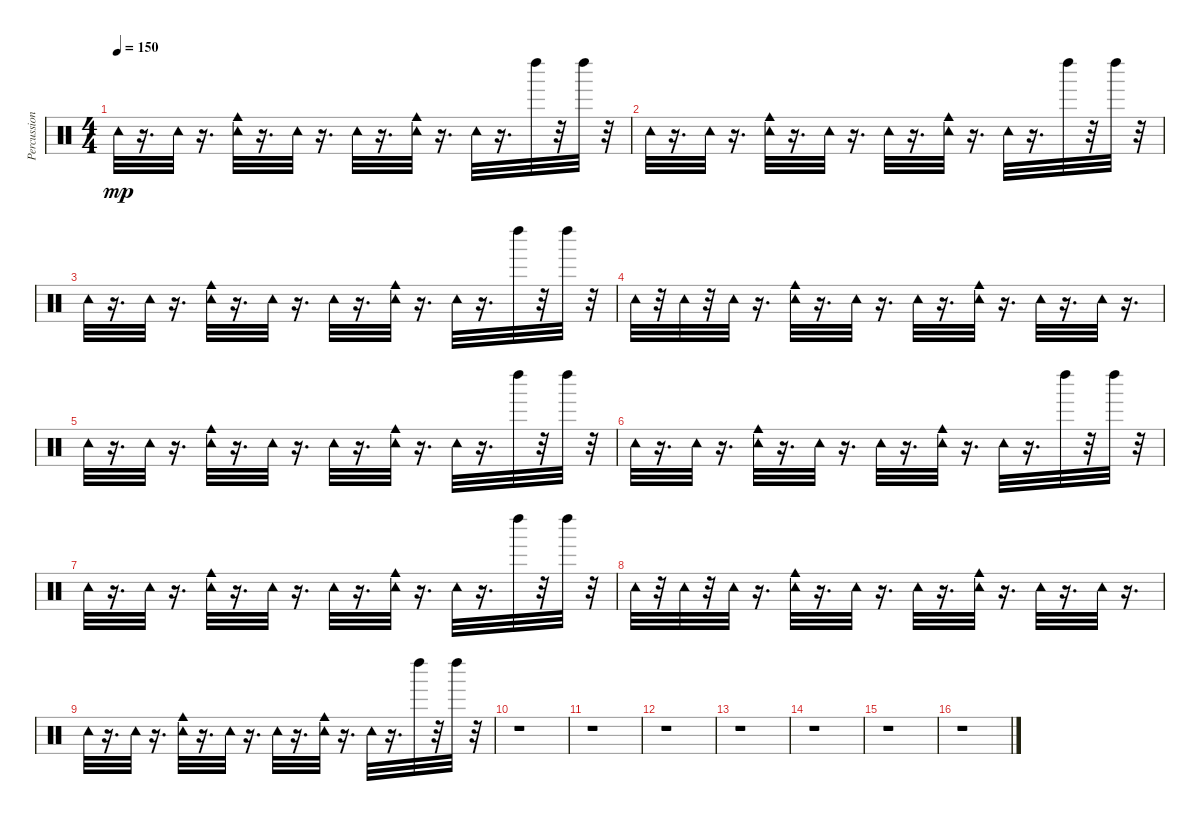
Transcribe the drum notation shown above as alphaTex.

\track ("Percussion" "Percussion") {instrument percussion}
\staff {score}
\articulation defaults
\ts (4 4)
\tempo 150
\clef neutral
\ks c "Tambourine (hit)".32{dy mp}
r.16{d} "Tambourine (hit)".32 r.16{d} ("Tambourine (hit)" "Cowbell medium (hit)").32 r.16{d} "Tambourine (hit)".32 r.16{d} "Tambourine (hit)".32 r.16{d} ("Tambourine (hit)" "Cowbell medium (hit)").32 r.16{d} "Tambourine (hit)".32 r.16{d} "Left Maraca (hit)".32 r.32 "Left Maraca (hit)".32 r.32 |
"Tambourine (hit)".32 r.16{d} "Tambourine (hit)".32 r.16{d} ("Tambourine (hit)" "Cowbell medium (hit)").32 r.16{d} "Tambourine (hit)".32 r.16{d} "Tambourine (hit)".32 r.16{d} ("Tambourine (hit)" "Cowbell medium (hit)").32 r.16{d} "Tambourine (hit)".32 r.16{d} "Left Maraca (hit)".32 r.32 "Left Maraca (hit)".32 r.32 |
"Tambourine (hit)".32 r.16{d} "Tambourine (hit)".32 r.16{d} ("Tambourine (hit)" "Cowbell medium (hit)").32 r.16{d} "Tambourine (hit)".32 r.16{d} "Tambourine (hit)".32 r.16{d} ("Tambourine (hit)" "Cowbell medium (hit)").32 r.16{d} "Tambourine (hit)".32 r.16{d} "Left Maraca (hit)".32 r.32 "Left Maraca (hit)".32 r.32 |
"Tambourine (hit)".32 r.32 "Tambourine (hit)".32 r.32 "Tambourine (hit)".32 r.16{d} ("Tambourine (hit)" "Cowbell medium (hit)").32 r.16{d} "Tambourine (hit)".32 r.16{d} "Tambourine (hit)".32 r.16{d} ("Tambourine (hit)" "Cowbell medium (hit)").32 r.16{d} "Tambourine (hit)".32 r.16{d} "Tambourine (hit)".32 r.16{d} |
"Tambourine (hit)".32 r.16{d} "Tambourine (hit)".32 r.16{d} ("Tambourine (hit)" "Cowbell medium (hit)").32 r.16{d} "Tambourine (hit)".32 r.16{d} "Tambourine (hit)".32 r.16{d} ("Tambourine (hit)" "Cowbell medium (hit)").32 r.16{d} "Tambourine (hit)".32 r.16{d} "Left Maraca (hit)".32 r.32 "Left Maraca (hit)".32 r.32 |
"Tambourine (hit)".32 r.16{d} "Tambourine (hit)".32 r.16{d} ("Tambourine (hit)" "Cowbell medium (hit)").32 r.16{d} "Tambourine (hit)".32 r.16{d} "Tambourine (hit)".32 r.16{d} ("Tambourine (hit)" "Cowbell medium (hit)").32 r.16{d} "Tambourine (hit)".32 r.16{d} "Left Maraca (hit)".32 r.32 "Left Maraca (hit)".32 r.32 |
"Tambourine (hit)".32 r.16{d} "Tambourine (hit)".32 r.16{d} ("Tambourine (hit)" "Cowbell medium (hit)").32 r.16{d} "Tambourine (hit)".32 r.16{d} "Tambourine (hit)".32 r.16{d} ("Tambourine (hit)" "Cowbell medium (hit)").32 r.16{d} "Tambourine (hit)".32 r.16{d} "Left Maraca (hit)".32 r.32 "Left Maraca (hit)".32 r.32 |
"Tambourine (hit)".32 r.32 "Tambourine (hit)".32 r.32 "Tambourine (hit)".32 r.16{d} ("Tambourine (hit)" "Cowbell medium (hit)").32 r.16{d} "Tambourine (hit)".32 r.16{d} "Tambourine (hit)".32 r.16{d} ("Tambourine (hit)" "Cowbell medium (hit)").32 r.16{d} "Tambourine (hit)".32 r.16{d} "Tambourine (hit)".32 r.16{d} |
"Tambourine (hit)".32 r.16{d} "Tambourine (hit)".32 r.16{d} ("Tambourine (hit)" "Cowbell medium (hit)").32 r.16{d} "Tambourine (hit)".32 r.16{d} "Tambourine (hit)".32 r.16{d} ("Tambourine (hit)" "Cowbell medium (hit)").32 r.16{d} "Tambourine (hit)".32 r.16{d} "Left Maraca (hit)".32 r.32 "Left Maraca (hit)".32 r.32 |
r.1 |
r.1 |
r.1 |
r.1 |
r.1 |
r.1 |
r.1
